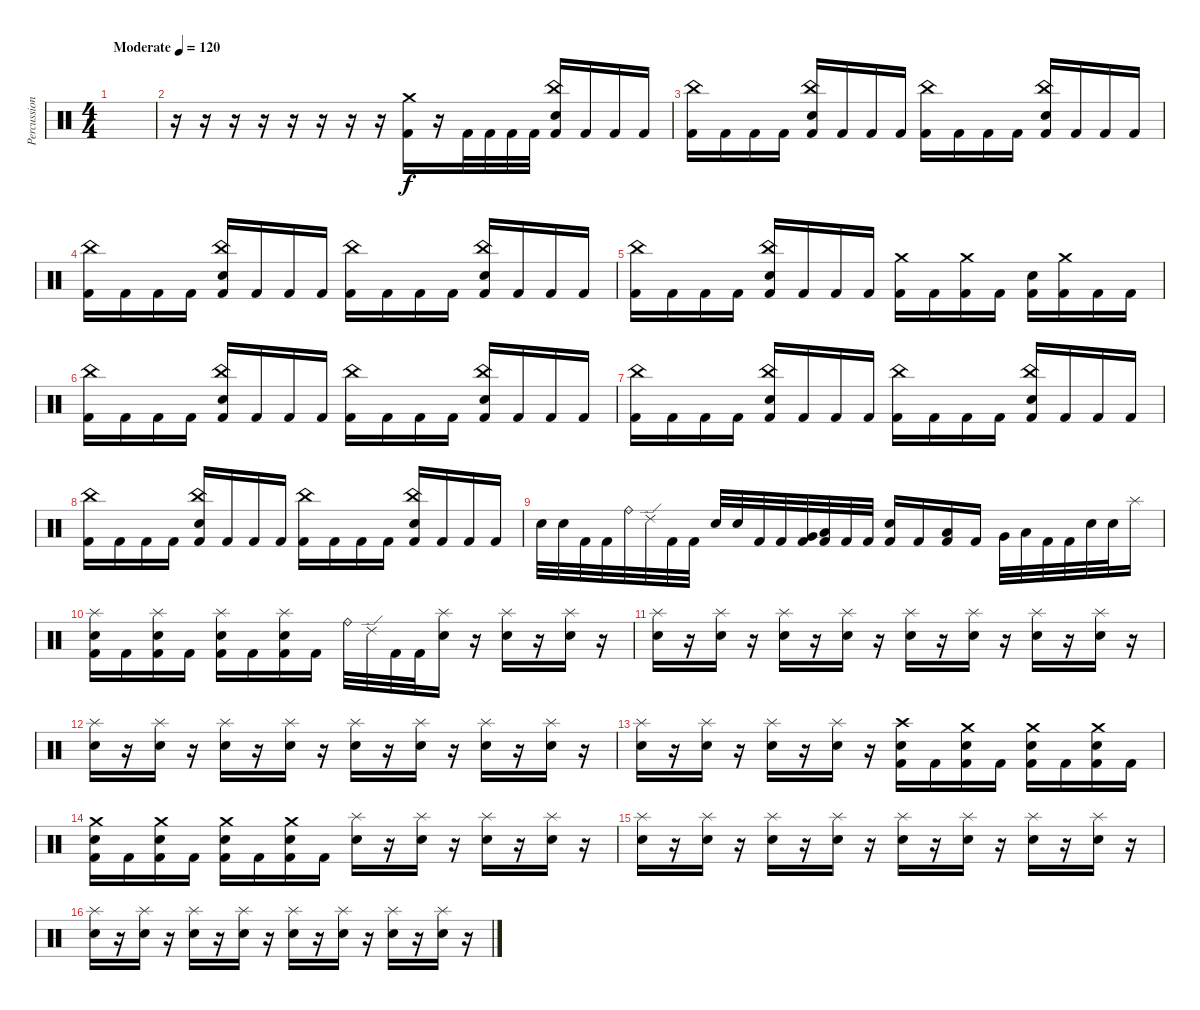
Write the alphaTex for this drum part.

\track ("Percussion" "Percussion") {instrument percussion}
\staff {score}
\articulation defaults
\ts (4 4)
\tempo (120 "Moderate")
\clef neutral
\ks c
|
r.16 r.16 r.16 r.16 r.16 r.16 r.16 r.16 ("Crash medium (hit)" "Kick (hit) 2").16 r.16 "Kick (hit) 2".32 "Kick (hit) 2".32 "Kick (hit) 2".32 "Kick (hit) 2".32 ("China (hit)" "Electric Snare (hit)" "Kick (hit) 2").16 "Kick (hit) 2".16 "Kick (hit) 2".16 "Kick (hit) 2".16 |
("China (hit)" "Kick (hit) 2").16 "Kick (hit) 2".16 "Kick (hit) 2".16 "Kick (hit) 2".16 ("China (hit)" "Electric Snare (hit)" "Kick (hit) 2").16 "Kick (hit) 2".16 "Kick (hit) 2".16 "Kick (hit) 2".16 ("China (hit)" "Kick (hit) 2").16 "Kick (hit) 2".16 "Kick (hit) 2".16 "Kick (hit) 2".16 ("China (hit)" "Electric Snare (hit)" "Kick (hit) 2").16 "Kick (hit) 2".16 "Kick (hit) 2".16 "Kick (hit) 2".16 |
("China (hit)" "Kick (hit) 2").16 "Kick (hit) 2".16 "Kick (hit) 2".16 "Kick (hit) 2".16 ("China (hit)" "Electric Snare (hit)" "Kick (hit) 2").16 "Kick (hit) 2".16 "Kick (hit) 2".16 "Kick (hit) 2".16 ("China (hit)" "Kick (hit) 2").16 "Kick (hit) 2".16 "Kick (hit) 2".16 "Kick (hit) 2".16 ("China (hit)" "Electric Snare (hit)" "Kick (hit) 2").16 "Kick (hit) 2".16 "Kick (hit) 2".16 "Kick (hit) 2".16 |
("China (hit)" "Kick (hit) 2").16 "Kick (hit) 2".16 "Kick (hit) 2".16 "Kick (hit) 2".16 ("China (hit)" "Electric Snare (hit)" "Kick (hit) 2").16 "Kick (hit) 2".16 "Kick (hit) 2".16 "Kick (hit) 2".16 ("Crash medium (hit)" "Kick (hit) 2").16 "Kick (hit) 2".16 ("Crash medium (hit)" "Kick (hit) 2").16 "Kick (hit) 2".16 ("Electric Snare (hit)" "Kick (hit) 2").16 ("Crash medium (hit)" "Kick (hit) 2").16 "Kick (hit) 2".16 "Kick (hit) 2".16 |
("China (hit)" "Kick (hit) 2").16 "Kick (hit) 2".16 "Kick (hit) 2".16 "Kick (hit) 2".16 ("China (hit)" "Electric Snare (hit)" "Kick (hit) 2").16 "Kick (hit) 2".16 "Kick (hit) 2".16 "Kick (hit) 2".16 ("China (hit)" "Kick (hit) 2").16 "Kick (hit) 2".16 "Kick (hit) 2".16 "Kick (hit) 2".16 ("China (hit)" "Electric Snare (hit)" "Kick (hit) 2").16 "Kick (hit) 2".16 "Kick (hit) 2".16 "Kick (hit) 2".16 |
("China (hit)" "Kick (hit) 2").16 "Kick (hit) 2".16 "Kick (hit) 2".16 "Kick (hit) 2".16 ("China (hit)" "Electric Snare (hit)" "Kick (hit) 2").16 "Kick (hit) 2".16 "Kick (hit) 2".16 "Kick (hit) 2".16 ("China (hit)" "Kick (hit) 2").16 "Kick (hit) 2".16 "Kick (hit) 2".16 "Kick (hit) 2".16 ("China (hit)" "Electric Snare (hit)" "Kick (hit) 2").16 "Kick (hit) 2".16 "Kick (hit) 2".16 "Kick (hit) 2".16 |
("China (hit)" "Kick (hit) 2").16 "Kick (hit) 2".16 "Kick (hit) 2".16 "Kick (hit) 2".16 ("China (hit)" "Electric Snare (hit)" "Kick (hit) 2").16 "Kick (hit) 2".16 "Kick (hit) 2".16 "Kick (hit) 2".16 ("China (hit)" "Kick (hit) 2").16 "Kick (hit) 2".16 "Kick (hit) 2".16 "Kick (hit) 2".16 ("China (hit)" "Electric Snare (hit)" "Kick (hit) 2").16 "Kick (hit) 2".16 "Kick (hit) 2".16 "Kick (hit) 2".16 |
"Electric Snare (hit)".32 "Electric Snare (hit)".32 "Kick (hit) 2".32 "Kick (hit) 2".32 "Ride (bell)".32 "Ride (edge) 2".32 "Kick (hit) 2".32 "Kick (hit) 2".32 "Electric Snare (hit)".32 "Electric Snare (hit)".32 "Kick (hit) 2".32 "Kick (hit) 2".32 ("Very Low Tom (hit)" "Kick (hit) 2").32 ("Low Floor Tom (hit)" "Kick (hit) 2").32 "Kick (hit) 2".32 "Kick (hit) 2".32 ("Electric Snare (hit)" "Kick (hit) 2").16 "Kick (hit) 2".16 ("Low Floor Tom (hit)" "Kick (hit) 2").16 "Kick (hit) 2".16 "Very Low Tom (hit)".32 "Low Floor Tom (hit)".32 "Kick (hit) 2".32 "Kick (hit) 2".32 "Electric Snare (hit)".32 "Electric Snare (hit)".32 "Splash (hit)".16 |
("Splash (hit)" "Electric Snare (hit)" "Kick (hit) 2").16 "Kick (hit) 2".16 ("Splash (hit)" "Electric Snare (hit)" "Kick (hit) 2").16 "Kick (hit) 2".16 ("Splash (hit)" "Electric Snare (hit)" "Kick (hit) 2").16 "Kick (hit) 2".16 ("Splash (hit)" "Electric Snare (hit)" "Kick (hit) 2").16 "Kick (hit) 2".16 "Ride (bell)".32 "Ride (edge) 2".32 "Kick (hit) 2".32 "Kick (hit) 2".32 ("Splash (hit)" "Electric Snare (hit)").16 r.16 ("Splash (hit)" "Electric Snare (hit)").16 r.16 ("Splash (hit)" "Electric Snare (hit)").16 r.16 |
("Splash (hit)" "Electric Snare (hit)").16 r.16 ("Splash (hit)" "Electric Snare (hit)").16 r.16 ("Splash (hit)" "Electric Snare (hit)").16 r.16 ("Splash (hit)" "Electric Snare (hit)").16 r.16 ("Splash (hit)" "Electric Snare (hit)").16 r.16 ("Splash (hit)" "Electric Snare (hit)").16 r.16 ("Splash (hit)" "Electric Snare (hit)").16 r.16 ("Splash (hit)" "Electric Snare (hit)").16 r.16 |
("Splash (hit)" "Electric Snare (hit)").16 r.16 ("Splash (hit)" "Electric Snare (hit)").16 r.16 ("Splash (hit)" "Electric Snare (hit)").16 r.16 ("Splash (hit)" "Electric Snare (hit)").16 r.16 ("Splash (hit)" "Electric Snare (hit)").16 r.16 ("Splash (hit)" "Electric Snare (hit)").16 r.16 ("Splash (hit)" "Electric Snare (hit)").16 r.16 ("Splash (hit)" "Electric Snare (hit)").16 r.16 |
("Splash (hit)" "Electric Snare (hit)").16 r.16 ("Splash (hit)" "Electric Snare (hit)").16 r.16 ("Splash (hit)" "Electric Snare (hit)").16 r.16 ("Splash (hit)" "Electric Snare (hit)").16 r.16 ("Crash high (hit)" "Electric Snare (hit)" "Kick (hit) 2").16 "Kick (hit) 2".16 ("Crash medium (hit)" "Electric Snare (hit)" "Kick (hit) 2").16 "Kick (hit) 2".16 ("Crash medium (hit)" "Electric Snare (hit)" "Kick (hit) 2").16 "Kick (hit) 2".16 ("Crash medium (hit)" "Electric Snare (hit)" "Kick (hit) 2").16 "Kick (hit) 2".16 |
("Crash medium (hit)" "Electric Snare (hit)" "Kick (hit) 2").16 "Kick (hit) 2".16 ("Crash medium (hit)" "Electric Snare (hit)" "Kick (hit) 2").16 "Kick (hit) 2".16 ("Crash medium (hit)" "Electric Snare (hit)" "Kick (hit) 2").16 "Kick (hit) 2".16 ("Crash medium (hit)" "Electric Snare (hit)" "Kick (hit) 2").16 "Kick (hit) 2".16 ("Splash (hit)" "Electric Snare (hit)").16 r.16 ("Splash (hit)" "Electric Snare (hit)").16 r.16 ("Splash (hit)" "Electric Snare (hit)").16 r.16 ("Splash (hit)" "Electric Snare (hit)").16 r.16 |
("Splash (hit)" "Electric Snare (hit)").16 r.16 ("Splash (hit)" "Electric Snare (hit)").16 r.16 ("Splash (hit)" "Electric Snare (hit)").16 r.16 ("Splash (hit)" "Electric Snare (hit)").16 r.16 ("Splash (hit)" "Electric Snare (hit)").16 r.16 ("Splash (hit)" "Electric Snare (hit)").16 r.16 ("Splash (hit)" "Electric Snare (hit)").16 r.16 ("Splash (hit)" "Electric Snare (hit)").16 r.16 |
("Splash (hit)" "Electric Snare (hit)").16 r.16 ("Splash (hit)" "Electric Snare (hit)").16 r.16 ("Splash (hit)" "Electric Snare (hit)").16 r.16 ("Splash (hit)" "Electric Snare (hit)").16 r.16 ("Splash (hit)" "Electric Snare (hit)").16 r.16 ("Splash (hit)" "Electric Snare (hit)").16 r.16 ("Splash (hit)" "Electric Snare (hit)").16 r.16 ("Splash (hit)" "Electric Snare (hit)").16 r.16
